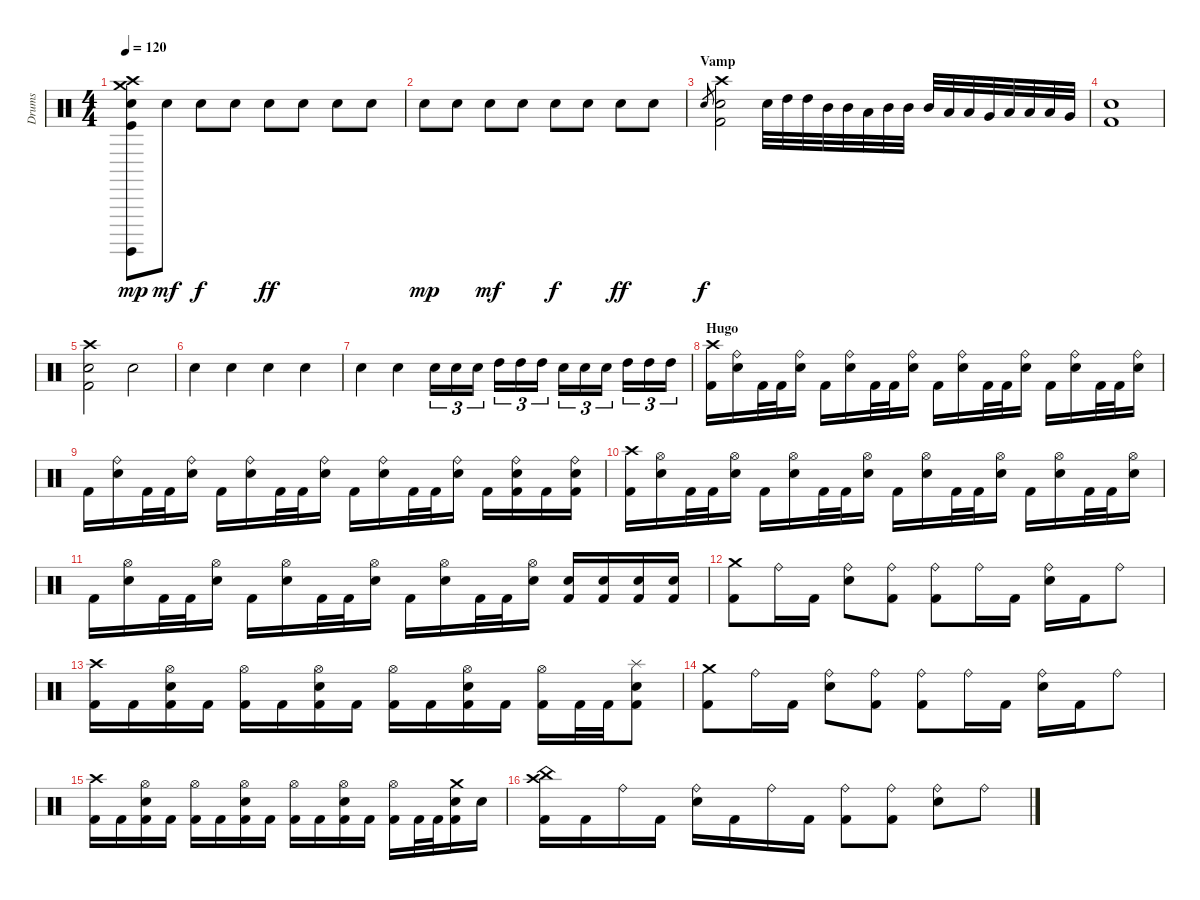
\track ("Drums" "Drums") {instrument percussion}
\staff {score}
\articulation defaults
\ts (4 4)
\tempo 120
\clef neutral
\ks c
("Crash high (hit)" "Crash medium (hit)" "Electric Snare (hit)" "Surdo (hit)" "Kick (hit)").8{dy mp} "Electric Snare (hit)".8{dy mf} "Electric Snare (hit)".8{dy f} "Electric Snare (hit)".8 "Electric Snare (hit)".8{dy ff} "Electric Snare (hit)".8 "Electric Snare (hit)".8 "Electric Snare (hit)".8 |
"Electric Snare (hit)".8{dy mp} "Electric Snare (hit)".8 "Electric Snare (hit)".8{dy mf} "Electric Snare (hit)".8 "Electric Snare (hit)".8{dy f} "Electric Snare (hit)".8 "Electric Snare (hit)".8{dy ff} "Electric Snare (hit)".8 |
\section ("" "Vamp")
"Electric Snare (hit)".8{gr dy f} ("Crash high (hit)" "Electric Snare (hit)" "Kick (hit) 2").2 "Electric Snare (hit)".32 "High Tom (hit)".32 "High Tom (hit)".32 "Mid Tom (hit)".32 "Mid Tom (hit)".32 "Low Tom (hit)".32 "Mid Tom (hit)".32 "Mid Tom (hit)".32 "Mid Tom (hit)".32 "Low Tom (hit)".32 "Low Tom (hit)".32 "Very Low Tom (hit)".32 "Low Tom (hit)".32 "Low Tom (hit)".32 "Low Tom (hit)".32 "Very Low Tom (hit)".32 |
("Electric Snare (hit)" "Kick (hit) 2").1 |
("Crash high (hit)" "Electric Snare (hit)" "Kick (hit) 2").2 "Electric Snare (hit)".2 |
"Electric Snare (hit)".4 "Electric Snare (hit)".4 "Electric Snare (hit)".4 "Electric Snare (hit)".4 |
"Electric Snare (hit)".4 "Electric Snare (hit)".4 "Electric Snare (hit)".16{tu (3 2)} "Electric Snare (hit)".16{tu (3 2)} "Electric Snare (hit)".16{tu (3 2)} "High Tom (hit)".16{tu (3 2)} "High Tom (hit)".16{tu (3 2)} "High Tom (hit)".16{tu (3 2)} "Electric Snare (hit)".16{tu (3 2)} "Electric Snare (hit)".16{tu (3 2)} "Electric Snare (hit)".16{tu (3 2)} "High Tom (hit)".16{tu (3 2)} "High Tom (hit)".16{tu (3 2)} "High Tom (hit)".16{tu (3 2)} |
\section ("" "Hugo")
("Crash high (hit)" "Kick (hit) 2").16 ("Ride (bell)" "Electric Snare (hit)").16 "Kick (hit) 2".32 "Kick (hit) 2".32 ("Ride (bell)" "Electric Snare (hit)").16 "Kick (hit) 2".16 ("Ride (bell)" "Electric Snare (hit)").16 "Kick (hit) 2".32 "Kick (hit) 2".32 ("Ride (bell)" "Electric Snare (hit)").16 "Kick (hit) 2".16 ("Ride (bell)" "Electric Snare (hit)").16 "Kick (hit) 2".32 "Kick (hit) 2".32 ("Ride (bell)" "Electric Snare (hit)").16 "Kick (hit) 2".16 ("Ride (bell)" "Electric Snare (hit)").16 "Kick (hit) 2".32 "Kick (hit) 2".32 ("Ride (bell)" "Electric Snare (hit)").16 |
"Kick (hit) 2".16 ("Ride (bell)" "Electric Snare (hit)").16 "Kick (hit) 2".32 "Kick (hit) 2".32 ("Ride (bell)" "Electric Snare (hit)").16 "Kick (hit) 2".16 ("Ride (bell)" "Electric Snare (hit)").16 "Kick (hit) 2".32 "Kick (hit) 2".32 ("Ride (bell)" "Electric Snare (hit)").16 "Kick (hit) 2".16 ("Ride (bell)" "Electric Snare (hit)").16 "Kick (hit) 2".32 "Kick (hit) 2".32 ("Ride (bell)" "Electric Snare (hit)").16 "Kick (hit) 2".16 ("Ride (bell)" "Electric Snare (hit)" "Kick (hit) 2").16 "Kick (hit) 2".16 ("Ride (bell)" "Electric Snare (hit)" "Kick (hit) 2").16 |
("Crash high (hit)" "Kick (hit) 2").16 ("Hi-Hat (open)" "Electric Snare (hit)").16 "Kick (hit) 2".32 "Kick (hit) 2".32 ("Hi-Hat (open)" "Electric Snare (hit)").16 "Kick (hit) 2".16 ("Hi-Hat (open)" "Electric Snare (hit)").16 "Kick (hit) 2".32 "Kick (hit) 2".32 ("Hi-Hat (open)" "Electric Snare (hit)").16 "Kick (hit) 2".16 ("Hi-Hat (open)" "Electric Snare (hit)").16 "Kick (hit) 2".32 "Kick (hit) 2".32 ("Hi-Hat (open)" "Electric Snare (hit)").16 "Kick (hit) 2".16 ("Hi-Hat (open)" "Electric Snare (hit)").16 "Kick (hit) 2".32 "Kick (hit) 2".32 ("Hi-Hat (open)" "Electric Snare (hit)").16 |
"Kick (hit) 2".16 ("Hi-Hat (open)" "Electric Snare (hit)").16 "Kick (hit) 2".32 "Kick (hit) 2".32 ("Hi-Hat (open)" "Electric Snare (hit)").16 "Kick (hit) 2".16 ("Hi-Hat (open)" "Electric Snare (hit)").16 "Kick (hit) 2".32 "Kick (hit) 2".32 ("Hi-Hat (open)" "Electric Snare (hit)").16 "Kick (hit) 2".16 ("Hi-Hat (open)" "Electric Snare (hit)").16 "Kick (hit) 2".32 "Kick (hit) 2".32 ("Hi-Hat (open)" "Electric Snare (hit)").16 ("Electric Snare (hit)" "Kick (hit) 2").16 ("Electric Snare (hit)" "Kick (hit) 2").16 ("Electric Snare (hit)" "Kick (hit) 2").16 ("Electric Snare (hit)" "Kick (hit) 2").16 |
("Crash medium (hit)" "Kick (hit) 2").8 "Ride (bell)".16 "Kick (hit) 2".16 ("Ride (bell)" "Electric Snare (hit)").8 ("Ride (bell)" "Kick (hit) 2").8 ("Ride (bell)" "Kick (hit) 2").8 "Ride (bell)".16 "Kick (hit) 2".16 ("Ride (bell)" "Electric Snare (hit)").16 "Kick (hit) 2".16 "Ride (bell)".8 |
("Crash high (hit)" "Kick (hit) 2").16 "Kick (hit) 2".16 ("Hi-Hat (open)" "Electric Snare (hit)" "Kick (hit) 2").16 "Kick (hit) 2".16 ("Hi-Hat (open)" "Kick (hit) 2").16 "Kick (hit) 2".16 ("Hi-Hat (open)" "Electric Snare (hit)" "Kick (hit) 2").16 "Kick (hit) 2".16 ("Hi-Hat (open)" "Kick (hit) 2").16 "Kick (hit) 2".16 ("Hi-Hat (open)" "Electric Snare (hit)" "Kick (hit) 2").16 "Kick (hit) 2".16 ("Hi-Hat (open)" "Kick (hit) 2").16 "Kick (hit) 2".32 "Kick (hit) 2".32 ("Splash (hit)" "Electric Snare (hit)" "Kick (hit) 2").8 |
("Crash medium (hit)" "Kick (hit) 2").8 "Ride (bell)".16 "Kick (hit) 2".16 ("Ride (bell)" "Electric Snare (hit)").8 ("Ride (bell)" "Kick (hit) 2").8 ("Ride (bell)" "Kick (hit) 2").8 "Ride (bell)".16 "Kick (hit) 2".16 ("Ride (bell)" "Electric Snare (hit)").16 "Kick (hit) 2".16 "Ride (bell)".8 |
("Crash high (hit)" "Kick (hit) 2").16 "Kick (hit) 2".16 ("Hi-Hat (open)" "Electric Snare (hit)" "Kick (hit) 2").16 "Kick (hit) 2".16 ("Hi-Hat (open)" "Kick (hit) 2").16 "Kick (hit) 2".16 ("Hi-Hat (open)" "Electric Snare (hit)" "Kick (hit) 2").16 "Kick (hit) 2".16 ("Hi-Hat (open)" "Kick (hit) 2").16 "Kick (hit) 2".16 ("Hi-Hat (open)" "Electric Snare (hit)" "Kick (hit) 2").16 "Kick (hit) 2".16 ("Hi-Hat (open)" "Kick (hit) 2").16 "Kick (hit) 2".32 "Kick (hit) 2".32 ("Crash medium (hit)" "Electric Snare (hit)" "Kick (hit) 2").16 "Electric Snare (hit)".16 |
("China (hit)" "Crash high (hit)" "Kick (hit) 2").16 "Kick (hit) 2".16 "Ride (bell)".16 "Kick (hit) 2".16 ("Ride (bell)" "Electric Snare (hit)").16 "Kick (hit) 2".16 "Ride (bell)".16 "Kick (hit) 2".16 ("Ride (bell)" "Kick (hit) 2").8 ("Ride (bell)" "Kick (hit) 2").8 ("Ride (bell)" "Electric Snare (hit)").8 "Ride (bell)".8
